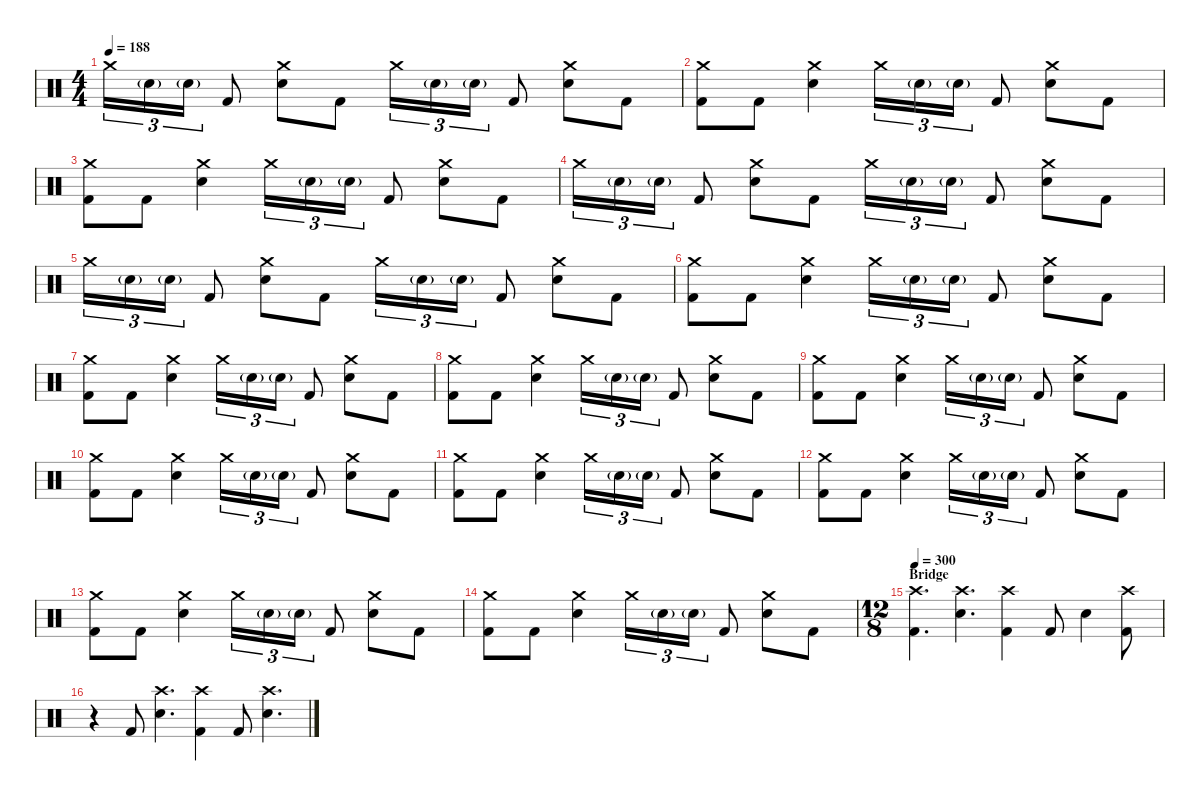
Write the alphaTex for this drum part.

\defaultSystemsLayout 4
\hideDynamics
\bracketExtendMode nobrackets
\singleTrackTrackNamePolicy hidden
\multiTrackTrackNamePolicy hidden
\firstSystemTrackNameMode fullname
\firstSystemTrackNameOrientation horizontal
\otherSystemsTrackNameOrientation horizontal
\track ("Drums" "drm.") {instrument percussion}
\staff {score}
\articulation defaults
\ts (4 4)
\tempo 188
\clef neutral
\ks c "Crash medium (hit)".16{tu (3 2) dy mf beam Down} "Snare (hit) 2"{g}.16{tu (3 2) dy ff beam Down} "Snare (hit) 2"{g}.16{tu (3 2) beam Down} "Kick (hit) 2".8{dy f beam Up}
("Crash medium (hit)" "Snare (hit) 2").8{dy mf beam Down} "Kick (hit) 2".8{dy f beam Down} "Crash medium (hit)".16{tu (3 2) dy mf beam Down} "Snare (hit) 2"{g}.16{tu (3 2) dy ff beam Down} "Snare (hit) 2"{g}.16{tu (3 2) beam Down} "Kick (hit) 2".8{dy f beam Up} ("Crash medium (hit)" "Snare (hit) 2").8{dy mf beam Down} "Kick (hit) 2".8{dy f beam Down} |
("Crash medium (hit)" "Kick (hit) 2").8{dy mf beam Down} "Kick (hit) 2".8{dy f beam Down} ("Crash medium (hit)" "Snare (hit) 2").4{dy mf beam Down} "Crash medium (hit)".16{tu (3 2) beam Down} "Snare (hit) 2"{g}.16{tu (3 2) dy ff beam Down} "Snare (hit) 2"{g}.16{tu (3 2) beam Down} "Kick (hit) 2".8{dy f beam Up} ("Crash medium (hit)" "Snare (hit) 2").8{dy mf beam Down} "Kick (hit) 2".8{dy f beam Down} |
("Crash medium (hit)" "Kick (hit) 2").8{dy mf beam Down} "Kick (hit) 2".8{dy f beam Down} ("Crash medium (hit)" "Snare (hit) 2").4{dy mf beam Down} "Crash medium (hit)".16{tu (3 2) beam Down} "Snare (hit) 2"{g}.16{tu (3 2) dy ff beam Down} "Snare (hit) 2"{g}.16{tu (3 2) beam Down} "Kick (hit) 2".8{dy f beam Up} ("Crash medium (hit)" "Snare (hit) 2").8{dy mf beam Down} "Kick (hit) 2".8{dy f beam Down} |
"Crash medium (hit)".16{tu (3 2) dy mf beam Down} "Snare (hit) 2"{g}.16{tu (3 2) dy ff beam Down} "Snare (hit) 2"{g}.16{tu (3 2) beam Down} "Kick (hit) 2".8{dy f beam Up} ("Crash medium (hit)" "Snare (hit) 2").8{dy mf beam Down} "Kick (hit) 2".8{dy f beam Down} "Crash medium (hit)".16{tu (3 2) dy mf beam Down} "Snare (hit) 2"{g}.16{tu (3 2) dy ff beam Down} "Snare (hit) 2"{g}.16{tu (3 2) beam Down} "Kick (hit) 2".8{dy f beam Up} ("Crash medium (hit)" "Snare (hit) 2").8{dy mf beam Down} "Kick (hit) 2".8{dy f beam Down} |
"Crash medium (hit)".16{tu (3 2) dy mf beam Down} "Snare (hit) 2"{g}.16{tu (3 2) dy ff beam Down} "Snare (hit) 2"{g}.16{tu (3 2) beam Down} "Kick (hit) 2".8{dy f beam Up} ("Crash medium (hit)" "Snare (hit) 2").8{dy mf beam Down} "Kick (hit) 2".8{dy f beam Down} "Crash medium (hit)".16{tu (3 2) dy mf beam Down} "Snare (hit) 2"{g}.16{tu (3 2) dy ff beam Down} "Snare (hit) 2"{g}.16{tu (3 2) beam Down} "Kick (hit) 2".8{dy f beam Up} ("Crash medium (hit)" "Snare (hit) 2").8{dy mf beam Down} "Kick (hit) 2".8{dy f beam Down} |
("Crash medium (hit)" "Kick (hit) 2").8{dy mf beam Down} "Kick (hit) 2".8{dy f beam Down} ("Crash medium (hit)" "Snare (hit) 2").4{dy mf beam Down} "Crash medium (hit)".16{tu (3 2) beam Down} "Snare (hit) 2"{g}.16{tu (3 2) dy ff beam Down} "Snare (hit) 2"{g}.16{tu (3 2) beam Down} "Kick (hit) 2".8{dy f beam Up} ("Crash medium (hit)" "Snare (hit) 2").8{dy mf beam Down} "Kick (hit) 2".8{dy f beam Down} |
("Crash medium (hit)" "Kick (hit) 2").8{dy mf beam Down} "Kick (hit) 2".8{dy f beam Down} ("Crash medium (hit)" "Snare (hit) 2").4{dy mf beam Down} "Crash medium (hit)".16{tu (3 2) beam Down} "Snare (hit) 2"{g}.16{tu (3 2) dy ff beam Down} "Snare (hit) 2"{g}.16{tu (3 2) beam Down} "Kick (hit) 2".8{dy f beam Up} ("Crash medium (hit)" "Snare (hit) 2").8{dy mf beam Down} "Kick (hit) 2".8{dy f beam Down} |
("Crash medium (hit)" "Kick (hit) 2").8{dy mf beam Down} "Kick (hit) 2".8{dy f beam Down} ("Crash medium (hit)" "Snare (hit) 2").4{dy mf beam Down} "Crash medium (hit)".16{tu (3 2) beam Down} "Snare (hit) 2"{g}.16{tu (3 2) dy ff beam Down} "Snare (hit) 2"{g}.16{tu (3 2) beam Down} "Kick (hit) 2".8{dy f beam Up} ("Crash medium (hit)" "Snare (hit) 2").8{dy mf beam Down} "Kick (hit) 2".8{dy f beam Down} |
("Crash medium (hit)" "Kick (hit) 2").8{dy mf beam Down} "Kick (hit) 2".8{dy f beam Down} ("Crash medium (hit)" "Snare (hit) 2").4{dy mf beam Down} "Crash medium (hit)".16{tu (3 2) beam Down} "Snare (hit) 2"{g}.16{tu (3 2) dy ff beam Down} "Snare (hit) 2"{g}.16{tu (3 2) beam Down} "Kick (hit) 2".8{dy f beam Up} ("Crash medium (hit)" "Snare (hit) 2").8{dy mf beam Down} "Kick (hit) 2".8{dy f beam Down} |
("Crash medium (hit)" "Kick (hit) 2").8{dy mf beam Down} "Kick (hit) 2".8{dy f beam Down} ("Crash medium (hit)" "Snare (hit) 2").4{dy mf beam Down} "Crash medium (hit)".16{tu (3 2) beam Down} "Snare (hit) 2"{g}.16{tu (3 2) dy ff beam Down} "Snare (hit) 2"{g}.16{tu (3 2) beam Down} "Kick (hit) 2".8{dy f beam Up} ("Crash medium (hit)" "Snare (hit) 2").8{dy mf beam Down} "Kick (hit) 2".8{dy f beam Down} |
("Crash medium (hit)" "Kick (hit) 2").8{dy mf beam Down} "Kick (hit) 2".8{dy f beam Down} ("Crash medium (hit)" "Snare (hit) 2").4{dy mf beam Down} "Crash medium (hit)".16{tu (3 2) beam Down} "Snare (hit) 2"{g}.16{tu (3 2) dy ff beam Down} "Snare (hit) 2"{g}.16{tu (3 2) beam Down} "Kick (hit) 2".8{dy f beam Up} ("Crash medium (hit)" "Snare (hit) 2").8{dy mf beam Down} "Kick (hit) 2".8{dy f beam Down} |
("Crash medium (hit)" "Kick (hit) 2").8{dy mf beam Down} "Kick (hit) 2".8{dy f beam Down} ("Crash medium (hit)" "Snare (hit) 2").4{dy mf beam Down} "Crash medium (hit)".16{tu (3 2) beam Down} "Snare (hit) 2"{g}.16{tu (3 2) dy ff beam Down} "Snare (hit) 2"{g}.16{tu (3 2) beam Down} "Kick (hit) 2".8{dy f beam Up} ("Crash medium (hit)" "Snare (hit) 2").8{dy mf beam Down} "Kick (hit) 2".8{dy f beam Down} |
("Crash medium (hit)" "Kick (hit) 2").8{dy mf beam Down} "Kick (hit) 2".8{dy f beam Down} ("Crash medium (hit)" "Snare (hit) 2").4{dy mf beam Down} "Crash medium (hit)".16{tu (3 2) beam Down} "Snare (hit) 2"{g}.16{tu (3 2) dy ff beam Down} "Snare (hit) 2"{g}.16{tu (3 2) beam Down} "Kick (hit) 2".8{dy f beam Up} ("Crash medium (hit)" "Snare (hit) 2").8{dy mf beam Down} "Kick (hit) 2".8{dy f beam Down} |
("Crash medium (hit)" "Kick (hit) 2").8{dy mf beam Down} "Kick (hit) 2".8{dy f beam Down} ("Crash medium (hit)" "Snare (hit) 2").4{dy mf beam Down} "Crash medium (hit)".16{tu (3 2) beam Down} "Snare (hit) 2"{g}.16{tu (3 2) dy ff beam Down} "Snare (hit) 2"{g}.16{tu (3 2) beam Down} "Kick (hit) 2".8{dy f beam Up} ("Crash medium (hit)" "Snare (hit) 2").8{dy mf beam Down} "Kick (hit) 2".8{dy f beam Down} |
\ts (12 8)
\section ("" "Bridge")
\tempo 300
("Crash high (hit)" "Kick (hit) 2").4{d beam Down} ("Crash high (hit)" "Snare (hit) 2").4{d beam Down} ("Crash high (hit)" "Kick (hit) 2").4{beam Down} "Kick (hit) 2".8{beam Up} "Snare (hit) 2".4{beam Down} ("Crash high (hit)" "Kick (hit) 2").8{beam Down} |
r.4{beam Down} "Kick (hit) 2".8{beam Up} ("Crash high (hit)" "Snare (hit) 2").4{d beam Down} ("Crash high (hit)" "Kick (hit) 2").4{beam Down} "Kick (hit) 2".8{beam Up} ("Crash high (hit)" "Snare (hit) 2").4{d beam Down}
